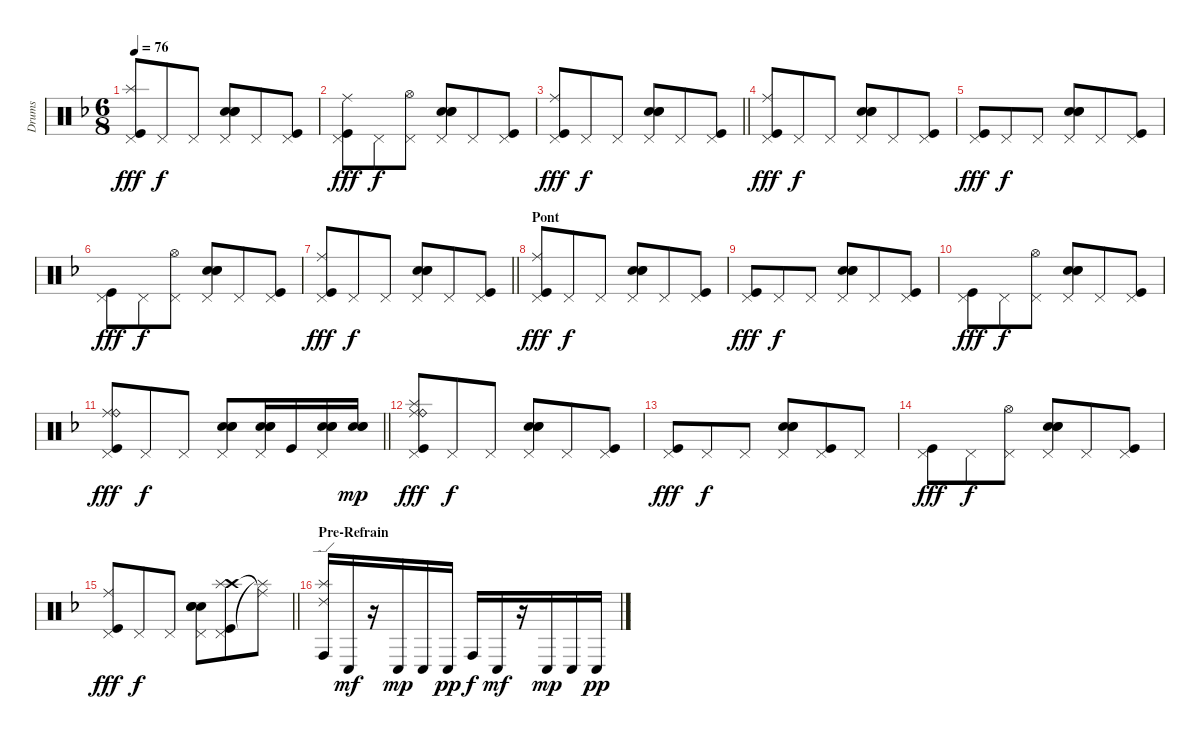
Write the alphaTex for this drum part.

\track ("Drums" "Drums") {instrument percussion}
\staff {score}
\articulation defaults
\ts (6 8)
\tempo 76
\clef neutral
\ks f
("Pedal Hi-Hat (hit)" "Splash (hit)" "Kick (hit)").8{dy fff} "Pedal Hi-Hat (hit)".8{dy f} "Pedal Hi-Hat (hit)".8 ("Pedal Hi-Hat (hit)" "Metronome (bell)" "Electric Snare (hit)" "Snare (hit) 2").8 "Pedal Hi-Hat (hit)".8 ("Pedal Hi-Hat (hit)" "Kick (hit)").8 |
("Pedal Hi-Hat (hit)" "Ride (middle)" "Kick (hit)").8{dy fff} "Pedal Hi-Hat (hit)".8{dy f} ("Pedal Hi-Hat (hit)" "Hi-Hat (open)").8 ("Pedal Hi-Hat (hit)" "Metronome (bell)" "Electric Snare (hit)" "Snare (hit) 2").8 "Pedal Hi-Hat (hit)".8 ("Pedal Hi-Hat (hit)" "Kick (hit)").8 |
\barLineRight lightlight
("Pedal Hi-Hat (hit)" "Ride (middle)" "Kick (hit)").8{dy fff} "Pedal Hi-Hat (hit)".8{dy f} "Pedal Hi-Hat (hit)".8 ("Pedal Hi-Hat (hit)" "Metronome (bell)" "Electric Snare (hit)" "Snare (hit) 2").8 "Pedal Hi-Hat (hit)".8 ("Pedal Hi-Hat (hit)" "Kick (hit)").8 |
("Pedal Hi-Hat (hit)" "Ride (middle)" "Kick (hit)").8{dy fff} "Pedal Hi-Hat (hit)".8{dy f} "Pedal Hi-Hat (hit)".8 ("Pedal Hi-Hat (hit)" "Metronome (bell)" "Electric Snare (hit)" "Snare (hit) 2").8 "Pedal Hi-Hat (hit)".8 ("Pedal Hi-Hat (hit)" "Kick (hit)").8 |
("Pedal Hi-Hat (hit)" "Kick (hit)").8{dy fff} "Pedal Hi-Hat (hit)".8{dy f} "Pedal Hi-Hat (hit)".8 ("Pedal Hi-Hat (hit)" "Metronome (bell)" "Electric Snare (hit)" "Snare (hit) 2").8 "Pedal Hi-Hat (hit)".8 ("Pedal Hi-Hat (hit)" "Kick (hit)").8 |
("Pedal Hi-Hat (hit)" "Kick (hit)").8{dy fff} "Pedal Hi-Hat (hit)".8{dy f} ("Pedal Hi-Hat (hit)" "Hi-Hat (open)").8 ("Pedal Hi-Hat (hit)" "Metronome (bell)" "Electric Snare (hit)" "Snare (hit) 2").8 "Pedal Hi-Hat (hit)".8 ("Pedal Hi-Hat (hit)" "Kick (hit)").8 |
\barLineRight lightlight
("Pedal Hi-Hat (hit)" "Ride (middle)" "Kick (hit)").8{dy fff} "Pedal Hi-Hat (hit)".8{dy f} "Pedal Hi-Hat (hit)".8 ("Pedal Hi-Hat (hit)" "Metronome (bell)" "Electric Snare (hit)" "Snare (hit) 2").8 "Pedal Hi-Hat (hit)".8 ("Pedal Hi-Hat (hit)" "Kick (hit)").8 |
\section ("" "Pont")
("Pedal Hi-Hat (hit)" "Ride (middle)" "Kick (hit)").8{dy fff} "Pedal Hi-Hat (hit)".8{dy f} "Pedal Hi-Hat (hit)".8 ("Pedal Hi-Hat (hit)" "Metronome (bell)" "Electric Snare (hit)" "Snare (hit) 2").8 "Pedal Hi-Hat (hit)".8 ("Pedal Hi-Hat (hit)" "Kick (hit)").8 |
("Pedal Hi-Hat (hit)" "Kick (hit)").8{dy fff} "Pedal Hi-Hat (hit)".8{dy f} "Pedal Hi-Hat (hit)".8 ("Pedal Hi-Hat (hit)" "Metronome (bell)" "Electric Snare (hit)" "Snare (hit) 2").8 "Pedal Hi-Hat (hit)".8 ("Pedal Hi-Hat (hit)" "Kick (hit)").8 |
("Pedal Hi-Hat (hit)" "Kick (hit)").8{dy fff} "Pedal Hi-Hat (hit)".8{dy f} ("Pedal Hi-Hat (hit)" "Hi-Hat (open)").8 ("Pedal Hi-Hat (hit)" "Metronome (bell)" "Electric Snare (hit)" "Snare (hit) 2").8 "Pedal Hi-Hat (hit)".8 ("Pedal Hi-Hat (hit)" "Kick (hit)").8 |
\barLineRight lightlight
("Pedal Hi-Hat (hit)" "Ride (middle)" "Ride (bell)" "Kick (hit)").8{dy fff} "Pedal Hi-Hat (hit)".8{dy f} "Pedal Hi-Hat (hit)".8 ("Pedal Hi-Hat (hit)" "Metronome (bell)" "Electric Snare (hit)" "Snare (hit) 2").8 ("Pedal Hi-Hat (hit)" "Metronome (bell)" "Electric Snare (hit)" "Snare (hit) 2").16 "Kick (hit)".16 ("Pedal Hi-Hat (hit)" "Metronome (bell)" "Electric Snare (hit)" "Snare (hit) 2").16 ("Metronome (bell)" "Electric Snare (hit)" "Snare (hit) 2").16{dy mp} |
("Pedal Hi-Hat (hit)" "Ride (middle)" "Splash (hit)" "Ride (bell)" "Kick (hit)").8{dy fff} "Pedal Hi-Hat (hit)".8{dy f} "Pedal Hi-Hat (hit)".8 ("Pedal Hi-Hat (hit)" "Metronome (bell)" "Electric Snare (hit)" "Snare (hit) 2").8 "Pedal Hi-Hat (hit)".8 ("Pedal Hi-Hat (hit)" "Kick (hit)").8 |
("Pedal Hi-Hat (hit)" "Kick (hit)").8{dy fff} "Pedal Hi-Hat (hit)".8{dy f} "Pedal Hi-Hat (hit)".8 ("Pedal Hi-Hat (hit)" "Metronome (bell)" "Electric Snare (hit)" "Snare (hit) 2").8 ("Pedal Hi-Hat (hit)" "Kick (hit)").8 "Pedal Hi-Hat (hit)".8 |
("Pedal Hi-Hat (hit)" "Kick (hit)").8{dy fff} "Pedal Hi-Hat (hit)".8{dy f} ("Pedal Hi-Hat (hit)" "Hi-Hat (open)").8 ("Pedal Hi-Hat (hit)" "Metronome (bell)" "Electric Snare (hit)" "Snare (hit) 2").8 "Pedal Hi-Hat (hit)".8 ("Pedal Hi-Hat (hit)" "Kick (hit)").8 |
\barLineRight lightlight
("Pedal Hi-Hat (hit)" "Ride (middle)" "Kick (hit)").8{dy fff} "Pedal Hi-Hat (hit)".8{dy f} "Pedal Hi-Hat (hit)".8 ("Pedal Hi-Hat (hit)" "Metronome (bell)" "Electric Snare (hit)" "Snare (hit) 2").8 ("Pedal Hi-Hat (hit)" "Crash high (hit)" "Splash (hit)" "Kick (hit)").8 ("Splash (hit)"{t} "Ride (middle)"{t}).8 |
\section ("" "Pre-Refrain")
("Ride (edge) 2" "Splash (hit)" "Conga high (hit)").16 "Conga low (hit)".16{dy mf} r.16 "Conga low (hit)".16{dy mp} "Conga low (hit)".16 "Conga low (hit)".16{dy pp} "Conga high (hit)".16{dy f} "Conga low (hit)".16{dy mf} r.16 "Conga low (hit)".16{dy mp} "Conga low (hit)".16 "Conga low (hit)".16{dy pp}
